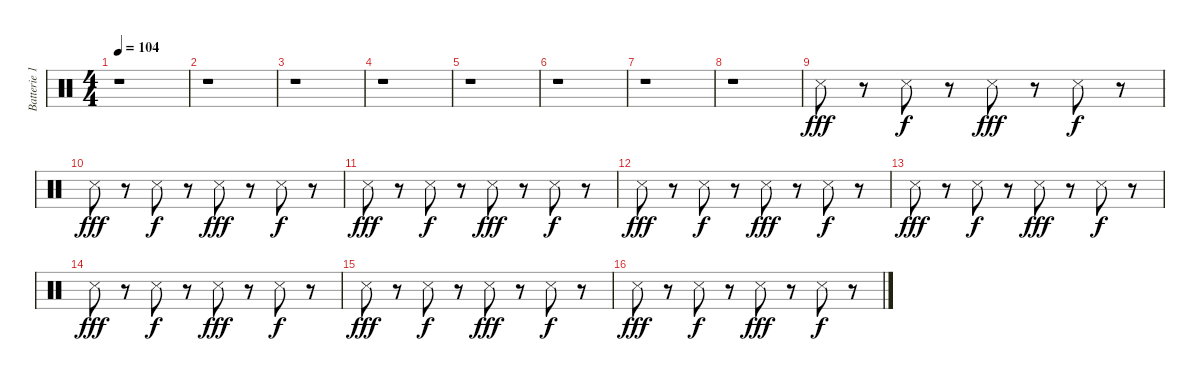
\track ("Batterie 1" "Batterie 1") {instrument percussion}
\staff {score}
\articulation defaults
\ts (4 4)
\tempo 104
\clef neutral
\ks c
r.1{dy fff} |
r.1 |
r.1 |
r.1 |
r.1 |
r.1 |
r.1 |
r.1 |
"Metronome (hit)".8 r.8 "Metronome (hit)".8{dy f} r.8 "Metronome (hit)".8{dy fff} r.8 "Metronome (hit)".8{dy f} r.8 |
"Metronome (hit)".8{dy fff} r.8 "Metronome (hit)".8{dy f} r.8 "Metronome (hit)".8{dy fff} r.8 "Metronome (hit)".8{dy f} r.8 |
"Metronome (hit)".8{dy fff} r.8 "Metronome (hit)".8{dy f} r.8 "Metronome (hit)".8{dy fff} r.8 "Metronome (hit)".8{dy f} r.8 |
"Metronome (hit)".8{dy fff} r.8 "Metronome (hit)".8{dy f} r.8 "Metronome (hit)".8{dy fff} r.8 "Metronome (hit)".8{dy f} r.8 |
"Metronome (hit)".8{dy fff} r.8 "Metronome (hit)".8{dy f} r.8 "Metronome (hit)".8{dy fff} r.8 "Metronome (hit)".8{dy f} r.8 |
"Metronome (hit)".8{dy fff} r.8 "Metronome (hit)".8{dy f} r.8 "Metronome (hit)".8{dy fff} r.8 "Metronome (hit)".8{dy f} r.8 |
"Metronome (hit)".8{dy fff} r.8 "Metronome (hit)".8{dy f} r.8 "Metronome (hit)".8{dy fff} r.8 "Metronome (hit)".8{dy f} r.8 |
"Metronome (hit)".8{dy fff} r.8 "Metronome (hit)".8{dy f} r.8 "Metronome (hit)".8{dy fff} r.8 "Metronome (hit)".8{dy f} r.8
